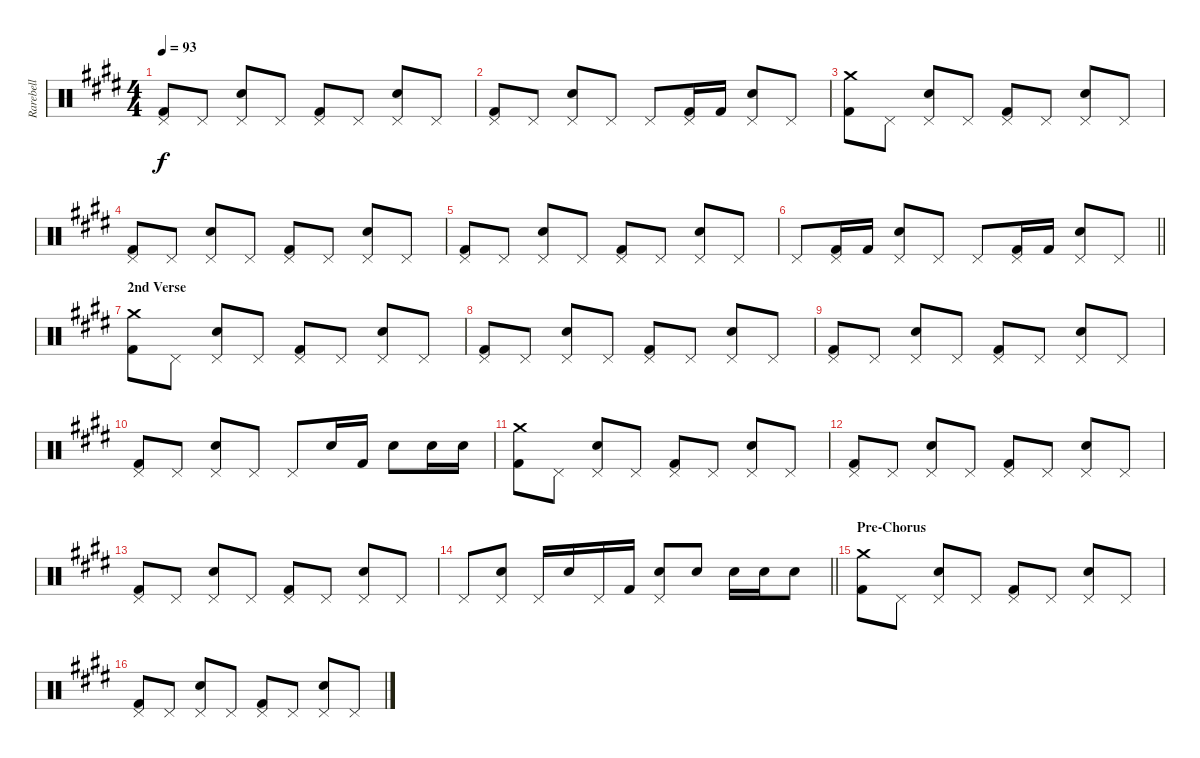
\track ("Rarebell" "Rarebell") {instrument percussion}
\staff {score}
\articulation defaults
\ts (4 4)
\tempo 93
\clef neutral
\ks e
("Pedal Hi-Hat (hit)" "Kick (hit) 2").8{dy f} "Pedal Hi-Hat (hit)".8 ("Pedal Hi-Hat (hit)" "Snare (hit) 2").8 "Pedal Hi-Hat (hit)".8 ("Pedal Hi-Hat (hit)" "Kick (hit) 2").8 "Pedal Hi-Hat (hit)".8 ("Pedal Hi-Hat (hit)" "Snare (hit) 2").8 "Pedal Hi-Hat (hit)".8 |
("Pedal Hi-Hat (hit)" "Kick (hit) 2").8 "Pedal Hi-Hat (hit)".8 ("Pedal Hi-Hat (hit)" "Snare (hit) 2").8 "Pedal Hi-Hat (hit)".8 "Pedal Hi-Hat (hit)".8 ("Pedal Hi-Hat (hit)" "Kick (hit) 2").16 "Kick (hit) 2".16 ("Pedal Hi-Hat (hit)" "Snare (hit) 2").8 "Pedal Hi-Hat (hit)".8 |
("Crash medium (hit)" "Kick (hit) 2").8 "Pedal Hi-Hat (hit)".8 ("Pedal Hi-Hat (hit)" "Snare (hit) 2").8 "Pedal Hi-Hat (hit)".8 ("Pedal Hi-Hat (hit)" "Kick (hit) 2").8 "Pedal Hi-Hat (hit)".8 ("Pedal Hi-Hat (hit)" "Snare (hit) 2").8 "Pedal Hi-Hat (hit)".8 |
("Pedal Hi-Hat (hit)" "Kick (hit) 2").8 "Pedal Hi-Hat (hit)".8 ("Pedal Hi-Hat (hit)" "Snare (hit) 2").8 "Pedal Hi-Hat (hit)".8 ("Pedal Hi-Hat (hit)" "Kick (hit) 2").8 "Pedal Hi-Hat (hit)".8 ("Pedal Hi-Hat (hit)" "Snare (hit) 2").8 "Pedal Hi-Hat (hit)".8 |
("Pedal Hi-Hat (hit)" "Kick (hit) 2").8 "Pedal Hi-Hat (hit)".8 ("Pedal Hi-Hat (hit)" "Snare (hit) 2").8 "Pedal Hi-Hat (hit)".8 ("Pedal Hi-Hat (hit)" "Kick (hit) 2").8 "Pedal Hi-Hat (hit)".8 ("Pedal Hi-Hat (hit)" "Snare (hit) 2").8 "Pedal Hi-Hat (hit)".8 |
\barLineRight lightlight "Pedal Hi-Hat (hit)".8
("Pedal Hi-Hat (hit)" "Kick (hit) 2").16 "Kick (hit) 2".16 ("Pedal Hi-Hat (hit)" "Snare (hit) 2").8 "Pedal Hi-Hat (hit)".8 "Pedal Hi-Hat (hit)".8 ("Pedal Hi-Hat (hit)" "Kick (hit) 2").16 "Kick (hit) 2".16 ("Pedal Hi-Hat (hit)" "Snare (hit) 2").8 "Pedal Hi-Hat (hit)".8 |
\section ("" "2nd Verse")
("Crash medium (hit)" "Kick (hit) 2").8 "Pedal Hi-Hat (hit)".8 ("Pedal Hi-Hat (hit)" "Snare (hit) 2").8 "Pedal Hi-Hat (hit)".8 ("Pedal Hi-Hat (hit)" "Kick (hit) 2").8 "Pedal Hi-Hat (hit)".8 ("Pedal Hi-Hat (hit)" "Snare (hit) 2").8 "Pedal Hi-Hat (hit)".8 |
("Pedal Hi-Hat (hit)" "Kick (hit) 2").8 "Pedal Hi-Hat (hit)".8 ("Pedal Hi-Hat (hit)" "Snare (hit) 2").8 "Pedal Hi-Hat (hit)".8 ("Pedal Hi-Hat (hit)" "Kick (hit) 2").8 "Pedal Hi-Hat (hit)".8 ("Pedal Hi-Hat (hit)" "Snare (hit) 2").8 "Pedal Hi-Hat (hit)".8 |
("Pedal Hi-Hat (hit)" "Kick (hit) 2").8 "Pedal Hi-Hat (hit)".8 ("Pedal Hi-Hat (hit)" "Snare (hit) 2").8 "Pedal Hi-Hat (hit)".8 ("Pedal Hi-Hat (hit)" "Kick (hit) 2").8 "Pedal Hi-Hat (hit)".8 ("Pedal Hi-Hat (hit)" "Snare (hit) 2").8 "Pedal Hi-Hat (hit)".8 |
("Pedal Hi-Hat (hit)" "Kick (hit) 2").8 "Pedal Hi-Hat (hit)".8 ("Pedal Hi-Hat (hit)" "Snare (hit) 2").8 "Pedal Hi-Hat (hit)".8 "Pedal Hi-Hat (hit)".8 "Snare (hit) 2".16 "Kick (hit) 2".16 "Snare (hit) 2".8 "Snare (hit) 2".16 "Snare (hit) 2".16 |
("Crash medium (hit)" "Kick (hit) 2").8 "Pedal Hi-Hat (hit)".8 ("Pedal Hi-Hat (hit)" "Snare (hit) 2").8 "Pedal Hi-Hat (hit)".8 ("Pedal Hi-Hat (hit)" "Kick (hit) 2").8 "Pedal Hi-Hat (hit)".8 ("Pedal Hi-Hat (hit)" "Snare (hit) 2").8 "Pedal Hi-Hat (hit)".8 |
("Pedal Hi-Hat (hit)" "Kick (hit) 2").8 "Pedal Hi-Hat (hit)".8 ("Pedal Hi-Hat (hit)" "Snare (hit) 2").8 "Pedal Hi-Hat (hit)".8 ("Pedal Hi-Hat (hit)" "Kick (hit) 2").8 "Pedal Hi-Hat (hit)".8 ("Pedal Hi-Hat (hit)" "Snare (hit) 2").8 "Pedal Hi-Hat (hit)".8 |
("Pedal Hi-Hat (hit)" "Kick (hit) 2").8 "Pedal Hi-Hat (hit)".8 ("Pedal Hi-Hat (hit)" "Snare (hit) 2").8 "Pedal Hi-Hat (hit)".8 ("Pedal Hi-Hat (hit)" "Kick (hit) 2").8 "Pedal Hi-Hat (hit)".8 ("Pedal Hi-Hat (hit)" "Snare (hit) 2").8 "Pedal Hi-Hat (hit)".8 |
\barLineRight lightlight "Pedal Hi-Hat (hit)".8
("Pedal Hi-Hat (hit)" "Snare (hit) 2").8 "Pedal Hi-Hat (hit)".16 "Snare (hit) 2".16 "Pedal Hi-Hat (hit)".16 "Kick (hit) 2".16 ("Pedal Hi-Hat (hit)" "Snare (hit) 2").8 "Snare (hit) 2".8 "Snare (hit) 2".16 "Snare (hit) 2".16 "Snare (hit) 2".8 |
\section ("" "Pre-Chorus")
("Crash medium (hit)" "Kick (hit) 2").8 "Pedal Hi-Hat (hit)".8 ("Pedal Hi-Hat (hit)" "Snare (hit) 2").8 "Pedal Hi-Hat (hit)".8 ("Pedal Hi-Hat (hit)" "Kick (hit) 2").8 "Pedal Hi-Hat (hit)".8 ("Pedal Hi-Hat (hit)" "Snare (hit) 2").8 "Pedal Hi-Hat (hit)".8 |
("Pedal Hi-Hat (hit)" "Kick (hit) 2").8 "Pedal Hi-Hat (hit)".8 ("Pedal Hi-Hat (hit)" "Snare (hit) 2").8 "Pedal Hi-Hat (hit)".8 ("Pedal Hi-Hat (hit)" "Kick (hit) 2").8 "Pedal Hi-Hat (hit)".8 ("Pedal Hi-Hat (hit)" "Snare (hit) 2").8 "Pedal Hi-Hat (hit)".8
